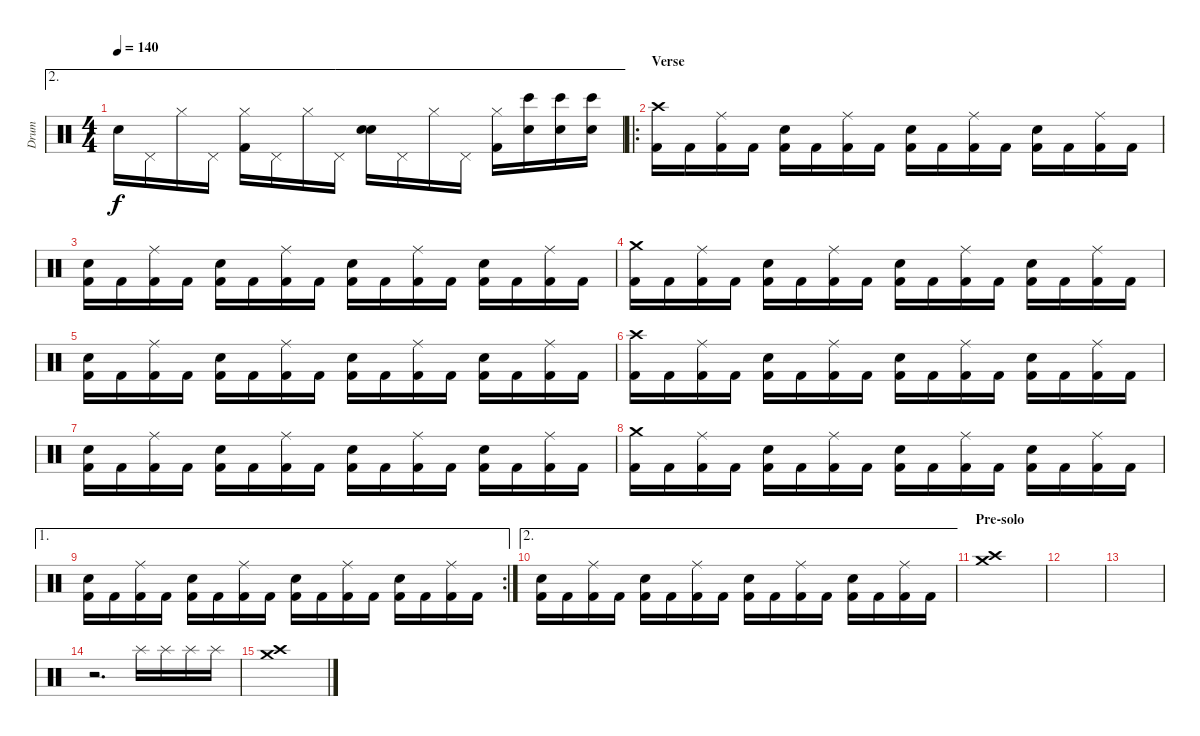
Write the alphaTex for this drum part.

\track ("Drum" "Drum") {instrument percussion}
\staff {score}
\articulation defaults
\ae 2
\ts (4 4)
\tempo 140
\clef neutral
\ks c "Electric Snare (hit)".16{dy f} "Pedal Hi-Hat (hit)".16 "Hi-Hat (closed)".16 "Pedal Hi-Hat (hit)".16
("Hi-Hat (closed)" "Kick (hit) 2").16 "Pedal Hi-Hat (hit)".16 "Hi-Hat (closed)".16 "Pedal Hi-Hat (hit)".16 ("Hand Clap (hit)" "Electric Snare (hit)").16 "Pedal Hi-Hat (hit)".16 "Hi-Hat (closed)".16 "Pedal Hi-Hat (hit)".16 ("Hi-Hat (closed)" "Kick (hit) 2").16 ("Bongo High (hit)" "Electric Snare (hit)").16 ("Bongo High (hit)" "Electric Snare (hit)").16 ("Bongo High (hit)" "Electric Snare (hit)").16 |
\ro
\section ("" "Verse")
("Crash high (hit)" "Kick (hit) 2").16 "Kick (hit) 2".16 ("Ride (middle)" "Kick (hit) 2").16 "Kick (hit) 2".16 ("Electric Snare (hit)" "Kick (hit) 2").16 "Kick (hit) 2".16 ("Ride (middle)" "Kick (hit) 2").16 "Kick (hit) 2".16 ("Electric Snare (hit)" "Kick (hit) 2").16 "Kick (hit) 2".16 ("Ride (middle)" "Kick (hit) 2").16 "Kick (hit) 2".16 ("Electric Snare (hit)" "Kick (hit) 2").16 "Kick (hit) 2".16 ("Ride (middle)" "Kick (hit) 2").16 "Kick (hit) 2".16 |
("Electric Snare (hit)" "Kick (hit) 2").16 "Kick (hit) 2".16 ("Ride (middle)" "Kick (hit) 2").16 "Kick (hit) 2".16 ("Electric Snare (hit)" "Kick (hit) 2").16 "Kick (hit) 2".16 ("Ride (middle)" "Kick (hit) 2").16 "Kick (hit) 2".16 ("Electric Snare (hit)" "Kick (hit) 2").16 "Kick (hit) 2".16 ("Ride (middle)" "Kick (hit) 2").16 "Kick (hit) 2".16 ("Electric Snare (hit)" "Kick (hit) 2").16 "Kick (hit) 2".16 ("Ride (middle)" "Kick (hit) 2").16 "Kick (hit) 2".16 |
("Crash medium (hit)" "Kick (hit) 2").16 "Kick (hit) 2".16 ("Ride (middle)" "Kick (hit) 2").16 "Kick (hit) 2".16 ("Electric Snare (hit)" "Kick (hit) 2").16 "Kick (hit) 2".16 ("Ride (middle)" "Kick (hit) 2").16 "Kick (hit) 2".16 ("Electric Snare (hit)" "Kick (hit) 2").16 "Kick (hit) 2".16 ("Ride (middle)" "Kick (hit) 2").16 "Kick (hit) 2".16 ("Electric Snare (hit)" "Kick (hit) 2").16 "Kick (hit) 2".16 ("Ride (middle)" "Kick (hit) 2").16 "Kick (hit) 2".16 |
("Electric Snare (hit)" "Kick (hit) 2").16 "Kick (hit) 2".16 ("Ride (middle)" "Kick (hit) 2").16 "Kick (hit) 2".16 ("Electric Snare (hit)" "Kick (hit) 2").16 "Kick (hit) 2".16 ("Ride (middle)" "Kick (hit) 2").16 "Kick (hit) 2".16 ("Electric Snare (hit)" "Kick (hit) 2").16 "Kick (hit) 2".16 ("Ride (middle)" "Kick (hit) 2").16 "Kick (hit) 2".16 ("Electric Snare (hit)" "Kick (hit) 2").16 "Kick (hit) 2".16 ("Ride (middle)" "Kick (hit) 2").16 "Kick (hit) 2".16 |
("Crash high (hit)" "Kick (hit) 2").16 "Kick (hit) 2".16 ("Ride (middle)" "Kick (hit) 2").16 "Kick (hit) 2".16 ("Electric Snare (hit)" "Kick (hit) 2").16 "Kick (hit) 2".16 ("Ride (middle)" "Kick (hit) 2").16 "Kick (hit) 2".16 ("Electric Snare (hit)" "Kick (hit) 2").16 "Kick (hit) 2".16 ("Ride (middle)" "Kick (hit) 2").16 "Kick (hit) 2".16 ("Electric Snare (hit)" "Kick (hit) 2").16 "Kick (hit) 2".16 ("Ride (middle)" "Kick (hit) 2").16 "Kick (hit) 2".16 |
("Electric Snare (hit)" "Kick (hit) 2").16 "Kick (hit) 2".16 ("Ride (middle)" "Kick (hit) 2").16 "Kick (hit) 2".16 ("Electric Snare (hit)" "Kick (hit) 2").16 "Kick (hit) 2".16 ("Ride (middle)" "Kick (hit) 2").16 "Kick (hit) 2".16 ("Electric Snare (hit)" "Kick (hit) 2").16 "Kick (hit) 2".16 ("Ride (middle)" "Kick (hit) 2").16 "Kick (hit) 2".16 ("Electric Snare (hit)" "Kick (hit) 2").16 "Kick (hit) 2".16 ("Ride (middle)" "Kick (hit) 2").16 "Kick (hit) 2".16 |
("Crash medium (hit)" "Kick (hit) 2").16 "Kick (hit) 2".16 ("Ride (middle)" "Kick (hit) 2").16 "Kick (hit) 2".16 ("Electric Snare (hit)" "Kick (hit) 2").16 "Kick (hit) 2".16 ("Ride (middle)" "Kick (hit) 2").16 "Kick (hit) 2".16 ("Electric Snare (hit)" "Kick (hit) 2").16 "Kick (hit) 2".16 ("Ride (middle)" "Kick (hit) 2").16 "Kick (hit) 2".16 ("Electric Snare (hit)" "Kick (hit) 2").16 "Kick (hit) 2".16 ("Ride (middle)" "Kick (hit) 2").16 "Kick (hit) 2".16 |
\ae 1
\rc 2
("Electric Snare (hit)" "Kick (hit) 2").16 "Kick (hit) 2".16 ("Ride (middle)" "Kick (hit) 2").16 "Kick (hit) 2".16 ("Electric Snare (hit)" "Kick (hit) 2").16 "Kick (hit) 2".16 ("Ride (middle)" "Kick (hit) 2").16 "Kick (hit) 2".16 ("Electric Snare (hit)" "Kick (hit) 2").16 "Kick (hit) 2".16 ("Ride (middle)" "Kick (hit) 2").16 "Kick (hit) 2".16 ("Electric Snare (hit)" "Kick (hit) 2").16 "Kick (hit) 2".16 ("Ride (middle)" "Kick (hit) 2").16 "Kick (hit) 2".16 |
\ae 2
("Electric Snare (hit)" "Kick (hit) 2").16 "Kick (hit) 2".16 ("Ride (middle)" "Kick (hit) 2").16 "Kick (hit) 2".16 ("Electric Snare (hit)" "Kick (hit) 2").16 "Kick (hit) 2".16 ("Ride (middle)" "Kick (hit) 2").16 "Kick (hit) 2".16 ("Electric Snare (hit)" "Kick (hit) 2").16 "Kick (hit) 2".16 ("Ride (middle)" "Kick (hit) 2").16 "Kick (hit) 2".16 ("Electric Snare (hit)" "Kick (hit) 2").16 "Kick (hit) 2".16 ("Ride (middle)" "Kick (hit) 2").16 "Kick (hit) 2".16 |
\section ("" "Pre-solo")
("Crash high (hit)" "Crash medium (hit)").1 |
|
|
r.2{d} "Splash (hit)".16 "Splash (hit)".16 "Splash (hit)".16 "Splash (hit)".16 |
("Crash high (hit)" "Crash medium (hit)").1
